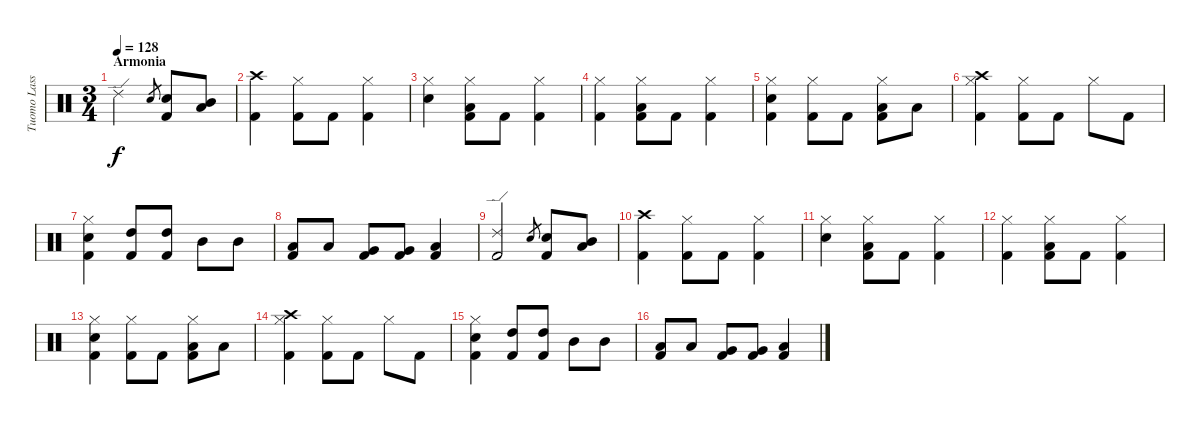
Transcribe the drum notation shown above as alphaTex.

\track ("Tuomo Lassila" "Tuomo Lass") {instrument percussion}
\staff {score}
\articulation defaults
\ts (3 4)
\section ("" "Armonia")
\tempo 128
\clef neutral
\ks c "Ride (edge) 2".2{dy f} "Snare (hit) 2".8{gr}
("Snare (hit) 2" "Kick (hit) 2").8 ("Mid Tom (hit)" "Low Tom (hit)").8 |
("Kick (hit) 2" "Crash high (hit)").4 ("Hi-Hat (closed)" "Kick (hit) 2").8 "Kick (hit) 2".8 ("Hi-Hat (closed)" "Kick (hit) 2").4 |
("Hi-Hat (closed)" "Snare (hit) 2").4 ("Hi-Hat (closed)" "Low Tom (hit)" "Kick (hit) 2").8 "Kick (hit) 2".8 ("Hi-Hat (closed)" "Kick (hit) 2").4 |
("Hi-Hat (closed)" "Kick (hit) 2").4 ("Hi-Hat (closed)" "Low Tom (hit)" "Kick (hit) 2").8 "Kick (hit) 2".8 ("Hi-Hat (closed)" "Kick (hit) 2").4 |
("Hi-Hat (closed)" "Snare (hit) 2" "Kick (hit) 2").4 ("Hi-Hat (closed)" "Kick (hit) 2").8 "Kick (hit) 2".8 ("Hi-Hat (closed)" "Low Tom (hit)" "Kick (hit) 2").8 "Low Tom (hit)".8 |
("Hi-Hat (closed)" "Kick (hit) 2" "Crash high (hit)").4 ("Hi-Hat (closed)" "Kick (hit) 2").8 "Kick (hit) 2".8 "Hi-Hat (closed)".8 "Kick (hit) 2".8 |
("Hi-Hat (closed)" "Snare (hit) 2" "Kick (hit) 2").4 ("High Tom (hit)" "Kick (hit) 2").8 ("High Tom (hit)" "Kick (hit) 2").8 "Mid Tom (hit)".8 "Mid Tom (hit)".8 |
("Low Tom (hit)" "Kick (hit) 2").8 "Low Tom (hit)".8 ("Very Low Tom (hit)" "Kick (hit) 2").8 ("Very Low Tom (hit)" "Kick (hit) 2").8 ("Low Tom (hit)" "Kick (hit) 2").4 |
("Ride (edge) 2" "Kick (hit) 2").2 "Snare (hit) 2".8{gr} ("Snare (hit) 2" "Kick (hit) 2").8 ("Mid Tom (hit)" "Low Tom (hit)").8 |
("Kick (hit) 2" "Crash high (hit)").4 ("Hi-Hat (closed)" "Kick (hit) 2").8 "Kick (hit) 2".8 ("Hi-Hat (closed)" "Kick (hit) 2").4 |
("Hi-Hat (closed)" "Snare (hit) 2").4 ("Hi-Hat (closed)" "Low Tom (hit)" "Kick (hit) 2").8 "Kick (hit) 2".8 ("Hi-Hat (closed)" "Kick (hit) 2").4 |
("Hi-Hat (closed)" "Kick (hit) 2").4 ("Hi-Hat (closed)" "Low Tom (hit)" "Kick (hit) 2").8 "Kick (hit) 2".8 ("Hi-Hat (closed)" "Kick (hit) 2").4 |
("Hi-Hat (closed)" "Snare (hit) 2" "Kick (hit) 2").4 ("Hi-Hat (closed)" "Kick (hit) 2").8 "Kick (hit) 2".8 ("Hi-Hat (closed)" "Low Tom (hit)" "Kick (hit) 2").8 "Low Tom (hit)".8 |
("Hi-Hat (closed)" "Kick (hit) 2" "Crash high (hit)").4 ("Hi-Hat (closed)" "Kick (hit) 2").8 "Kick (hit) 2".8 "Hi-Hat (closed)".8 "Kick (hit) 2".8 |
("Hi-Hat (closed)" "Snare (hit) 2" "Kick (hit) 2").4 ("High Tom (hit)" "Kick (hit) 2").8 ("High Tom (hit)" "Kick (hit) 2").8 "Mid Tom (hit)".8 "Mid Tom (hit)".8 |
("Low Tom (hit)" "Kick (hit) 2").8 "Low Tom (hit)".8 ("Very Low Tom (hit)" "Kick (hit) 2").8 ("Very Low Tom (hit)" "Kick (hit) 2").8 ("Low Tom (hit)" "Kick (hit) 2").4
